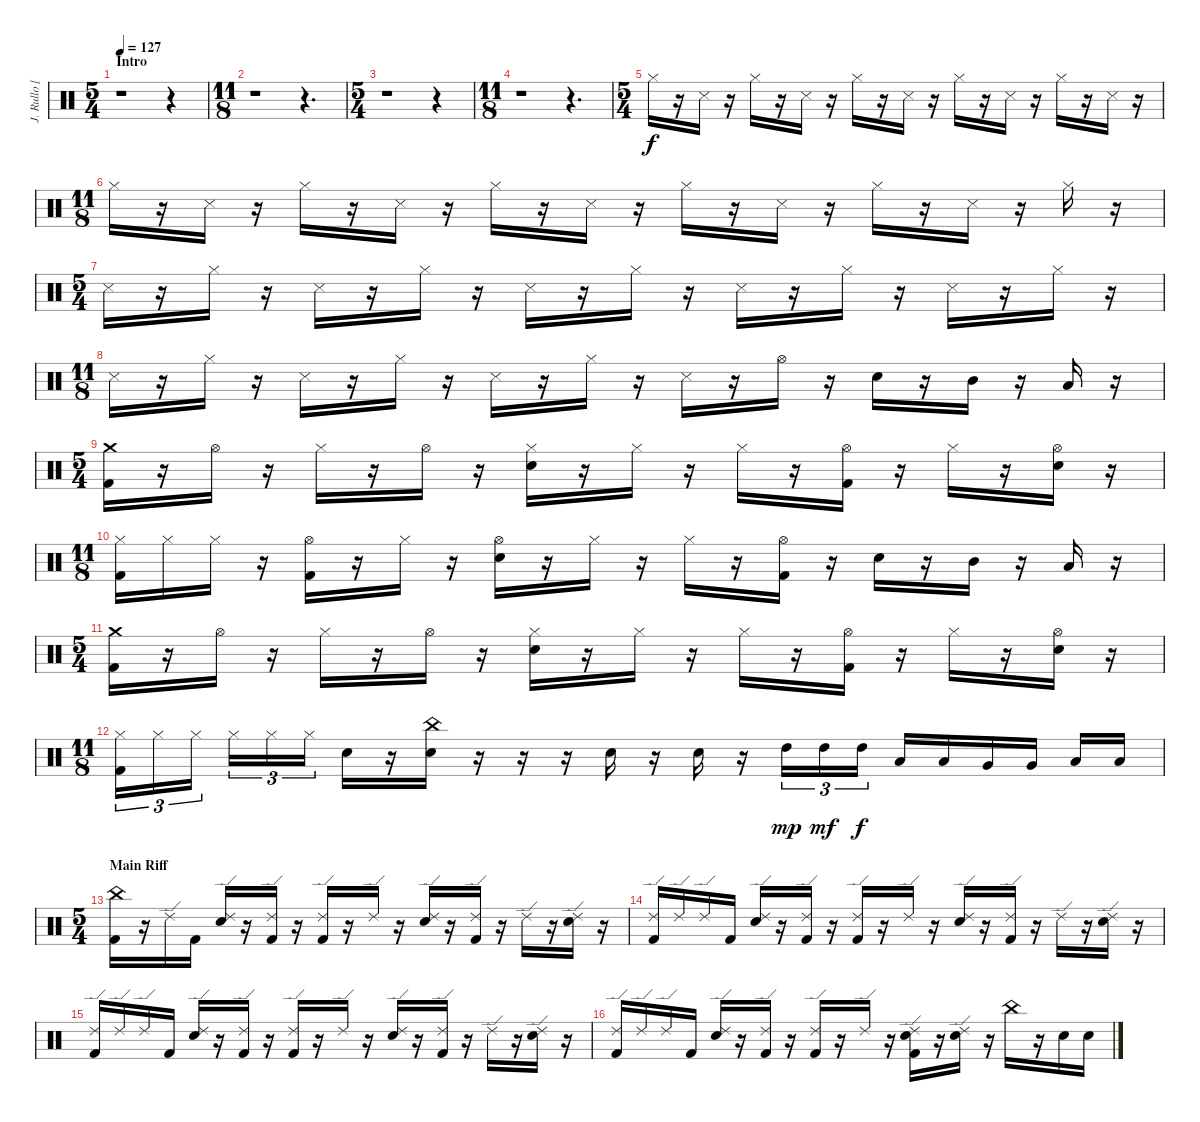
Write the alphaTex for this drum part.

\track ("J. Rullo [Drums]" "J. Rullo [") {instrument percussion}
\staff {score}
\articulation defaults
\ts (5 4)
\section ("" "Intro")
\tempo 127
\clef neutral
\ks c
r.1{dy f} r.4 |
\ts (11 8)
r.1 r.4{d} |
\ts (5 4)
r.1 r.4 |
\ts (11 8)
r.1 r.4{d} |
\ts (5 4)
"Hi-Hat (closed)".16 r.16 "Metronome (hit)".16 r.16 "Hi-Hat (closed)".16 r.16 "Metronome (hit)".16 r.16 "Hi-Hat (closed)".16 r.16 "Metronome (hit)".16 r.16 "Hi-Hat (closed)".16 r.16 "Metronome (hit)".16 r.16 "Hi-Hat (closed)".16 r.16 "Metronome (hit)".16 r.16 |
\ts (11 8)
"Hi-Hat (closed)".16 r.16 "Metronome (hit)".16 r.16 "Hi-Hat (closed)".16 r.16 "Metronome (hit)".16 r.16 "Hi-Hat (closed)".16 r.16 "Metronome (hit)".16 r.16 "Hi-Hat (closed)".16 r.16 "Metronome (hit)".16 r.16 "Hi-Hat (closed)".16 r.16 "Metronome (hit)".16 r.16 "Hi-Hat (closed)".16 r.16 |
\ts (5 4)
"Metronome (hit)".16 r.16 "Hi-Hat (closed)".16 r.16 "Metronome (hit)".16 r.16 "Hi-Hat (closed)".16 r.16 "Metronome (hit)".16 r.16 "Hi-Hat (closed)".16 r.16 "Metronome (hit)".16 r.16 "Hi-Hat (closed)".16 r.16 "Metronome (hit)".16 r.16 "Hi-Hat (closed)".16 r.16 |
\ts (11 8)
"Metronome (hit)".16 r.16 "Hi-Hat (closed)".16 r.16 "Metronome (hit)".16 r.16 "Hi-Hat (closed)".16 r.16 "Metronome (hit)".16 r.16 "Hi-Hat (closed)".16 r.16 "Metronome (hit)".16 r.16 "Hi-Hat (open)".16 r.16 "Electric Snare (hit)".16 r.16 "Mid Tom (hit)".16 r.16 "Low Tom (hit)".16 r.16 |
\ts (5 4)
("Crash medium (hit)" "Kick (hit) 2").16 r.16 "Hi-Hat (open)".16 r.16 "Hi-Hat (closed)".16 r.16 "Hi-Hat (open)".16 r.16 ("Hi-Hat (closed)" "Electric Snare (hit)").16 r.16 "Hi-Hat (closed)".16 r.16 "Hi-Hat (closed)".16 r.16 ("Hi-Hat (open)" "Kick (hit) 2").16 r.16 "Hi-Hat (closed)".16 r.16 ("Hi-Hat (open)" "Electric Snare (hit)").16 r.16 |
\ts (11 8)
("Hi-Hat (closed)" "Kick (hit) 2").16 "Hi-Hat (closed)".16 "Hi-Hat (closed)".16 r.16 ("Hi-Hat (open)" "Kick (hit) 2").16 r.16 "Hi-Hat (closed)".16 r.16 ("Hi-Hat (open)" "Electric Snare (hit)").16 r.16 "Hi-Hat (closed)".16 r.16 "Hi-Hat (closed)".16 r.16 ("Hi-Hat (open)" "Kick (hit) 2").16 r.16 "Electric Snare (hit)".16 r.16 "Mid Tom (hit)".16 r.16 "Low Tom (hit)".16 r.16 |
\ts (5 4)
("Crash medium (hit)" "Kick (hit) 2").16 r.16 "Hi-Hat (open)".16 r.16 "Hi-Hat (closed)".16 r.16 "Hi-Hat (open)".16 r.16 ("Hi-Hat (closed)" "Electric Snare (hit)").16 r.16 "Hi-Hat (closed)".16 r.16 "Hi-Hat (closed)".16 r.16 ("Hi-Hat (open)" "Kick (hit) 2").16 r.16 "Hi-Hat (closed)".16 r.16 ("Hi-Hat (open)" "Electric Snare (hit)").16 r.16 |
\ts (11 8)
("Hi-Hat (closed)" "Kick (hit) 2").16{tu (3 2)} "Hi-Hat (closed)".16{tu (3 2)} "Hi-Hat (closed)".16{tu (3 2)} "Hi-Hat (closed)".16{tu (3 2)} "Hi-Hat (closed)".16{tu (3 2)} "Hi-Hat (closed)".16{tu (3 2)} "Electric Snare (hit)".16 r.16 ("China (hit)" "Electric Snare (hit)").16 r.16 r.16 r.16 "Electric Snare (hit)".16 r.16 "Electric Snare (hit)".16 r.16 "High Tom (hit)".16{tu (3 2) dy mp} "High Tom (hit)".16{tu (3 2) dy mf} "High Tom (hit)".16{tu (3 2) dy f} "Low Tom (hit)".16 "Low Tom (hit)".16 "Very Low Tom (hit)".16 "Very Low Tom (hit)".16 "Low Floor Tom (hit)".16 "Low Floor Tom (hit)".16 |
\ts (5 4)
\section ("" "Main Riff")
("China (hit)" "Kick (hit) 2").16 r.16 "Ride (edge) 2".16 "Kick (hit) 2".16 ("Ride (edge) 2" "Electric Snare (hit)").16 r.16 ("Ride (edge) 2" "Kick (hit) 2").16 r.16 ("Ride (edge) 2" "Kick (hit) 2").16 r.16 "Ride (edge) 2".16 r.16 ("Ride (edge) 2" "Electric Snare (hit)").16 r.16 ("Ride (edge) 2" "Kick (hit) 2").16 r.16 "Ride (edge) 2".16 r.16 ("Ride (edge) 2" "Electric Snare (hit)").16 r.16 |
("Ride (edge) 2" "Kick (hit) 2").16 "Ride (edge) 2".16 "Ride (edge) 2".16 "Kick (hit) 2".16 ("Ride (edge) 2" "Electric Snare (hit)").16 r.16 ("Ride (edge) 2" "Kick (hit) 2").16 r.16 ("Ride (edge) 2" "Kick (hit) 2").16 r.16 "Ride (edge) 2".16 r.16 ("Ride (edge) 2" "Electric Snare (hit)").16 r.16 ("Ride (edge) 2" "Kick (hit) 2").16 r.16 "Ride (edge) 2".16 r.16 ("Ride (edge) 2" "Electric Snare (hit)").16 r.16 |
("Ride (edge) 2" "Kick (hit) 2").16 "Ride (edge) 2".16 "Ride (edge) 2".16 "Kick (hit) 2".16 ("Ride (edge) 2" "Electric Snare (hit)").16 r.16 ("Ride (edge) 2" "Kick (hit) 2").16 r.16 ("Ride (edge) 2" "Kick (hit) 2").16 r.16 "Ride (edge) 2".16 r.16 ("Ride (edge) 2" "Electric Snare (hit)").16 r.16 ("Ride (edge) 2" "Kick (hit) 2").16 r.16 "Ride (edge) 2".16 r.16 ("Ride (edge) 2" "Electric Snare (hit)").16 r.16 |
("Ride (edge) 2" "Kick (hit) 2").16 "Ride (edge) 2".16 "Ride (edge) 2".16 "Kick (hit) 2".16 ("Ride (edge) 2" "Electric Snare (hit)").16 r.16 ("Ride (edge) 2" "Kick (hit) 2").16 r.16 ("Ride (edge) 2" "Kick (hit) 2").16 r.16 "Ride (edge) 2".16 r.16 ("Ride (edge) 2" "Electric Snare (hit)" "Kick (hit) 2").16 r.16 ("Ride (edge) 2" "Electric Snare (hit)").16 r.16 "China (hit)".16 r.16 "Electric Snare (hit)".16 "Electric Snare (hit)".16
